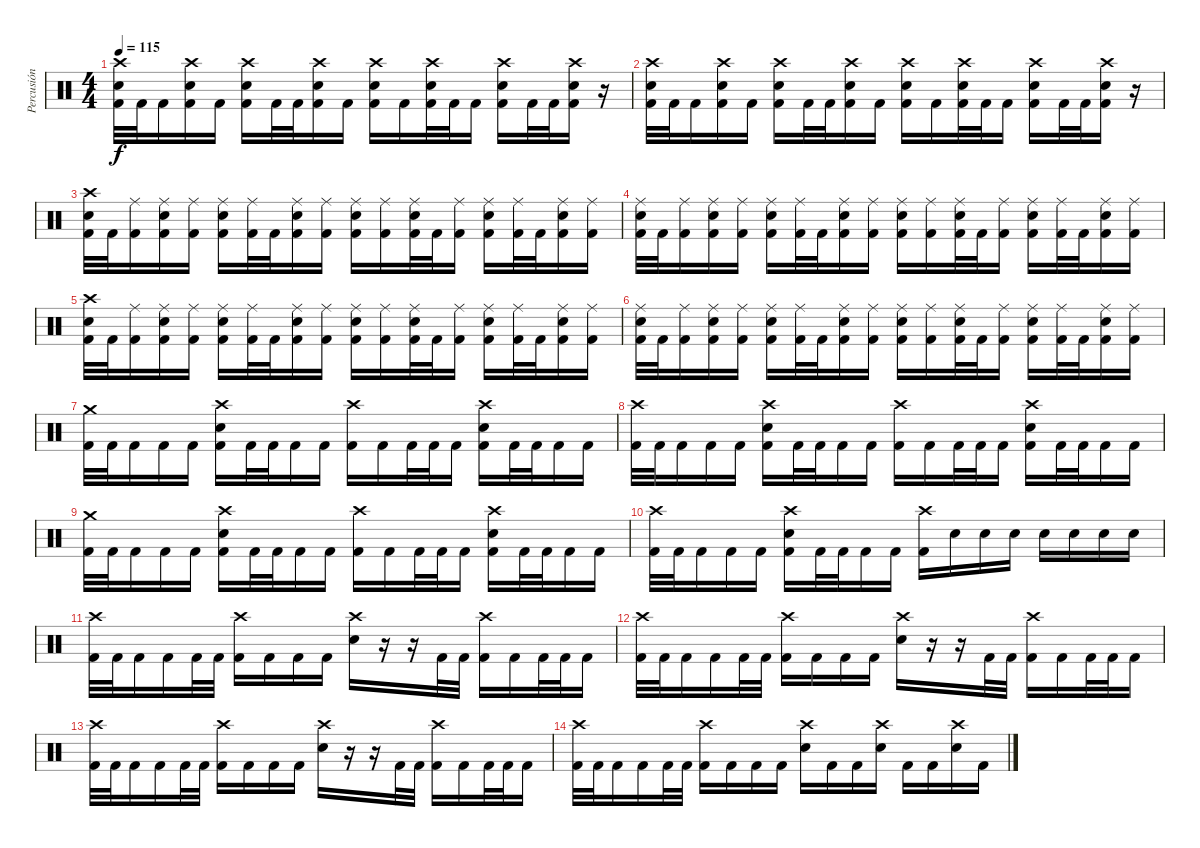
\track ("Percusión" "Percusión") {instrument percussion}
\staff {score}
\articulation defaults
\ts (4 4)
\tempo 115
\clef neutral
\ks c
("Crash high (hit)" "Snare (hit) 2" "Kick (hit) 2").32{dy f} "Kick (hit) 2".32 "Kick (hit) 2".16 ("Crash high (hit)" "Snare (hit) 2" "Kick (hit) 2").16 "Kick (hit) 2".16 ("Crash high (hit)" "Snare (hit) 2" "Kick (hit) 2").16 "Kick (hit) 2".32 "Kick (hit) 2".32 ("Crash high (hit)" "Snare (hit) 2" "Kick (hit) 2").16 "Kick (hit) 2".16 ("Crash high (hit)" "Snare (hit) 2" "Kick (hit) 2").16 "Kick (hit) 2".16 ("Crash high (hit)" "Snare (hit) 2" "Kick (hit) 2").32 "Kick (hit) 2".32 "Kick (hit) 2".16 ("Crash high (hit)" "Snare (hit) 2" "Kick (hit) 2").16 "Kick (hit) 2".32 "Kick (hit) 2".32 ("Crash high (hit)" "Snare (hit) 2" "Kick (hit) 2").16 r.16 |
("Crash high (hit)" "Snare (hit) 2" "Kick (hit) 2").32 "Kick (hit) 2".32 "Kick (hit) 2".16 ("Crash high (hit)" "Snare (hit) 2" "Kick (hit) 2").16 "Kick (hit) 2".16 ("Crash high (hit)" "Snare (hit) 2" "Kick (hit) 2").16 "Kick (hit) 2".32 "Kick (hit) 2".32 ("Crash high (hit)" "Snare (hit) 2" "Kick (hit) 2").16 "Kick (hit) 2".16 ("Crash high (hit)" "Snare (hit) 2" "Kick (hit) 2").16 "Kick (hit) 2".16 ("Crash high (hit)" "Snare (hit) 2" "Kick (hit) 2").32 "Kick (hit) 2".32 "Kick (hit) 2".16 ("Crash high (hit)" "Snare (hit) 2" "Kick (hit) 2").16 "Kick (hit) 2".32 "Kick (hit) 2".32 ("Crash high (hit)" "Snare (hit) 2" "Kick (hit) 2").16 r.16 |
("Crash high (hit)" "Snare (hit) 2" "Kick (hit) 2").32 "Kick (hit) 2".32 ("Ride (middle)" "Kick (hit) 2").16 ("Ride (middle)" "Snare (hit) 2" "Kick (hit) 2").16 ("Ride (middle)" "Kick (hit) 2").16 ("Ride (middle)" "Snare (hit) 2" "Kick (hit) 2").16 ("Ride (middle)" "Kick (hit) 2").32 "Kick (hit) 2".32 ("Ride (middle)" "Snare (hit) 2" "Kick (hit) 2").16 ("Ride (middle)" "Kick (hit) 2").16 ("Ride (middle)" "Snare (hit) 2" "Kick (hit) 2").16 ("Ride (middle)" "Kick (hit) 2").16 ("Ride (middle)" "Snare (hit) 2" "Kick (hit) 2").32 "Kick (hit) 2".32 ("Ride (middle)" "Kick (hit) 2").16 ("Ride (middle)" "Snare (hit) 2" "Kick (hit) 2").16 ("Ride (middle)" "Kick (hit) 2").32 "Kick (hit) 2".32 ("Ride (middle)" "Snare (hit) 2" "Kick (hit) 2").16 ("Ride (middle)" "Kick (hit) 2").16 |
("Ride (middle)" "Snare (hit) 2" "Kick (hit) 2").32 "Kick (hit) 2".32 ("Ride (middle)" "Kick (hit) 2").16 ("Ride (middle)" "Snare (hit) 2" "Kick (hit) 2").16 ("Ride (middle)" "Kick (hit) 2").16 ("Ride (middle)" "Snare (hit) 2" "Kick (hit) 2").16 ("Ride (middle)" "Kick (hit) 2").32 "Kick (hit) 2".32 ("Ride (middle)" "Snare (hit) 2" "Kick (hit) 2").16 ("Ride (middle)" "Kick (hit) 2").16 ("Ride (middle)" "Snare (hit) 2" "Kick (hit) 2").16 ("Ride (middle)" "Kick (hit) 2").16 ("Ride (middle)" "Snare (hit) 2" "Kick (hit) 2").32 "Kick (hit) 2".32 ("Ride (middle)" "Kick (hit) 2").16 ("Ride (middle)" "Snare (hit) 2" "Kick (hit) 2").16 ("Ride (middle)" "Kick (hit) 2").32 "Kick (hit) 2".32 ("Ride (middle)" "Snare (hit) 2" "Kick (hit) 2").16 ("Ride (middle)" "Kick (hit) 2").16 |
("Crash high (hit)" "Snare (hit) 2" "Kick (hit) 2").32 "Kick (hit) 2".32 ("Ride (middle)" "Kick (hit) 2").16 ("Ride (middle)" "Snare (hit) 2" "Kick (hit) 2").16 ("Ride (middle)" "Kick (hit) 2").16 ("Ride (middle)" "Snare (hit) 2" "Kick (hit) 2").16 ("Ride (middle)" "Kick (hit) 2").32 "Kick (hit) 2".32 ("Ride (middle)" "Snare (hit) 2" "Kick (hit) 2").16 ("Ride (middle)" "Kick (hit) 2").16 ("Ride (middle)" "Snare (hit) 2" "Kick (hit) 2").16 ("Ride (middle)" "Kick (hit) 2").16 ("Ride (middle)" "Snare (hit) 2" "Kick (hit) 2").32 "Kick (hit) 2".32 ("Ride (middle)" "Kick (hit) 2").16 ("Ride (middle)" "Snare (hit) 2" "Kick (hit) 2").16 ("Ride (middle)" "Kick (hit) 2").32 "Kick (hit) 2".32 ("Ride (middle)" "Snare (hit) 2" "Kick (hit) 2").16 ("Ride (middle)" "Kick (hit) 2").16 |
("Ride (middle)" "Snare (hit) 2" "Kick (hit) 2").32 "Kick (hit) 2".32 ("Ride (middle)" "Kick (hit) 2").16 ("Ride (middle)" "Snare (hit) 2" "Kick (hit) 2").16 ("Ride (middle)" "Kick (hit) 2").16 ("Ride (middle)" "Snare (hit) 2" "Kick (hit) 2").16 ("Ride (middle)" "Kick (hit) 2").32 "Kick (hit) 2".32 ("Ride (middle)" "Snare (hit) 2" "Kick (hit) 2").16 ("Ride (middle)" "Kick (hit) 2").16 ("Ride (middle)" "Snare (hit) 2" "Kick (hit) 2").16 ("Ride (middle)" "Kick (hit) 2").16 ("Ride (middle)" "Snare (hit) 2" "Kick (hit) 2").32 "Kick (hit) 2".32 ("Ride (middle)" "Kick (hit) 2").16 ("Ride (middle)" "Snare (hit) 2" "Kick (hit) 2").16 ("Ride (middle)" "Kick (hit) 2").32 "Kick (hit) 2".32 ("Ride (middle)" "Snare (hit) 2" "Kick (hit) 2").16 ("Ride (middle)" "Kick (hit) 2").16 |
("Crash medium (hit)" "Kick (hit) 2").32 "Kick (hit) 2".32 "Kick (hit) 2".16 "Kick (hit) 2".16 "Kick (hit) 2".16 ("Crash high (hit)" "Snare (hit) 2" "Kick (hit) 2").16 "Kick (hit) 2".32 "Kick (hit) 2".32 "Kick (hit) 2".16 "Kick (hit) 2".16 ("Crash high (hit)" "Kick (hit) 2").16 "Kick (hit) 2".16 "Kick (hit) 2".32 "Kick (hit) 2".32 "Kick (hit) 2".16 ("Crash high (hit)" "Snare (hit) 2" "Kick (hit) 2").16 "Kick (hit) 2".32 "Kick (hit) 2".32 "Kick (hit) 2".16 "Kick (hit) 2".16 |
("Crash high (hit)" "Kick (hit) 2").32 "Kick (hit) 2".32 "Kick (hit) 2".16 "Kick (hit) 2".16 "Kick (hit) 2".16 ("Crash high (hit)" "Snare (hit) 2" "Kick (hit) 2").16 "Kick (hit) 2".32 "Kick (hit) 2".32 "Kick (hit) 2".16 "Kick (hit) 2".16 ("Crash high (hit)" "Kick (hit) 2").16 "Kick (hit) 2".16 "Kick (hit) 2".32 "Kick (hit) 2".32 "Kick (hit) 2".16 ("Crash high (hit)" "Snare (hit) 2" "Kick (hit) 2").16 "Kick (hit) 2".32 "Kick (hit) 2".32 "Kick (hit) 2".16 "Kick (hit) 2".16 |
("Crash medium (hit)" "Kick (hit) 2").32 "Kick (hit) 2".32 "Kick (hit) 2".16 "Kick (hit) 2".16 "Kick (hit) 2".16 ("Crash high (hit)" "Snare (hit) 2" "Kick (hit) 2").16 "Kick (hit) 2".32 "Kick (hit) 2".32 "Kick (hit) 2".16 "Kick (hit) 2".16 ("Crash high (hit)" "Kick (hit) 2").16 "Kick (hit) 2".16 "Kick (hit) 2".32 "Kick (hit) 2".32 "Kick (hit) 2".16 ("Crash high (hit)" "Snare (hit) 2" "Kick (hit) 2").16 "Kick (hit) 2".32 "Kick (hit) 2".32 "Kick (hit) 2".16 "Kick (hit) 2".16 |
("Crash high (hit)" "Kick (hit) 2").32 "Kick (hit) 2".32 "Kick (hit) 2".16 "Kick (hit) 2".16 "Kick (hit) 2".16 ("Crash high (hit)" "Snare (hit) 2" "Kick (hit) 2").16 "Kick (hit) 2".32 "Kick (hit) 2".32 "Kick (hit) 2".16 "Kick (hit) 2".16 ("Crash high (hit)" "Kick (hit) 2").16 "Snare (hit) 2".16 "Snare (hit) 2".16 "Snare (hit) 2".16 "Snare (hit) 2".16 "Snare (hit) 2".16 "Snare (hit) 2".16 "Snare (hit) 2".16 |
("Crash high (hit)" "Kick (hit) 2").32 "Kick (hit) 2".32 "Kick (hit) 2".16 "Kick (hit) 2".16 "Kick (hit) 2".32 "Kick (hit) 2".32 ("Crash high (hit)" "Kick (hit) 2").16 "Kick (hit) 2".16 "Kick (hit) 2".16 "Kick (hit) 2".16 ("Crash high (hit)" "Snare (hit) 2").16 r.16 r.16 "Kick (hit) 2".32 "Kick (hit) 2".32 ("Crash high (hit)" "Kick (hit) 2").16 "Kick (hit) 2".16 "Kick (hit) 2".32 "Kick (hit) 2".32 "Kick (hit) 2".16 |
("Crash high (hit)" "Kick (hit) 2").32 "Kick (hit) 2".32 "Kick (hit) 2".16 "Kick (hit) 2".16 "Kick (hit) 2".32 "Kick (hit) 2".32 ("Crash high (hit)" "Kick (hit) 2").16 "Kick (hit) 2".16 "Kick (hit) 2".16 "Kick (hit) 2".16 ("Crash high (hit)" "Snare (hit) 2").16 r.16 r.16 "Kick (hit) 2".32 "Kick (hit) 2".32 ("Crash high (hit)" "Kick (hit) 2").16 "Kick (hit) 2".16 "Kick (hit) 2".32 "Kick (hit) 2".32 "Kick (hit) 2".16 |
("Crash high (hit)" "Kick (hit) 2").32 "Kick (hit) 2".32 "Kick (hit) 2".16 "Kick (hit) 2".16 "Kick (hit) 2".32 "Kick (hit) 2".32 ("Crash high (hit)" "Kick (hit) 2").16 "Kick (hit) 2".16 "Kick (hit) 2".16 "Kick (hit) 2".16 ("Crash high (hit)" "Snare (hit) 2").16 r.16 r.16 "Kick (hit) 2".32 "Kick (hit) 2".32 ("Crash high (hit)" "Kick (hit) 2").16 "Kick (hit) 2".16 "Kick (hit) 2".32 "Kick (hit) 2".32 "Kick (hit) 2".16 |
("Crash high (hit)" "Kick (hit) 2").32 "Kick (hit) 2".32 "Kick (hit) 2".16 "Kick (hit) 2".16 "Kick (hit) 2".32 "Kick (hit) 2".32 ("Crash high (hit)" "Kick (hit) 2").16 "Kick (hit) 2".16 "Kick (hit) 2".16 "Kick (hit) 2".16 ("Crash high (hit)" "Snare (hit) 2").16 "Kick (hit) 2".16 "Kick (hit) 2".16 ("Crash high (hit)" "Snare (hit) 2").16 "Kick (hit) 2".16 "Kick (hit) 2".16 ("Crash high (hit)" "Snare (hit) 2").16 "Kick (hit) 2".16
